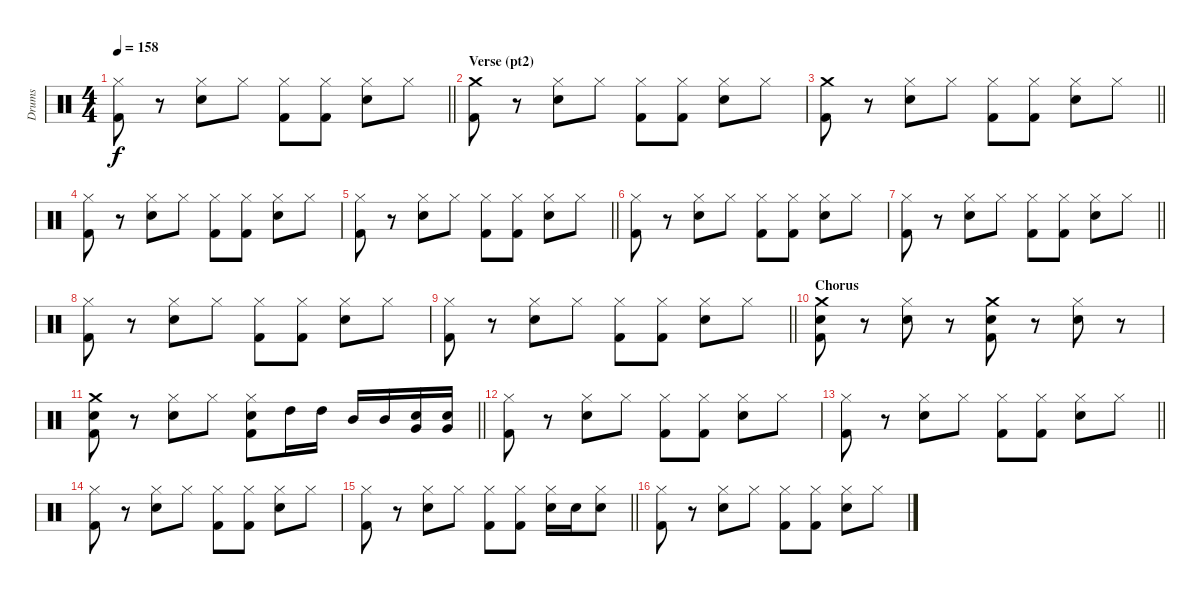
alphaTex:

\track ("Drums" "Drums") {instrument percussion}
\staff
\articulation defaults
\ts (4 4)
\tempo 158
\clef neutral
\barLineRight lightlight
\ks c
("Hi-Hat (closed)" "Kick (hit) 2").8{dy f} r.8 ("Hi-Hat (closed)" "Electric Snare (hit)").8 "Hi-Hat (closed)".8 ("Hi-Hat (closed)" "Kick (hit) 2").8 ("Hi-Hat (closed)" "Kick (hit) 2").8 ("Hi-Hat (closed)" "Electric Snare (hit)").8 "Hi-Hat (closed)".8 |
\section ("" "Verse (pt2)")
("Crash medium (hit)" "Kick (hit) 2").8 r.8 ("Hi-Hat (closed)" "Electric Snare (hit)").8 "Hi-Hat (closed)".8 ("Hi-Hat (closed)" "Kick (hit) 2").8 ("Hi-Hat (closed)" "Kick (hit) 2").8 ("Hi-Hat (closed)" "Electric Snare (hit)").8 "Hi-Hat (closed)".8 |
\barLineRight lightlight
("Crash medium (hit)" "Kick (hit) 2").8 r.8 ("Hi-Hat (closed)" "Electric Snare (hit)").8 "Hi-Hat (closed)".8 ("Hi-Hat (closed)" "Kick (hit) 2").8 ("Hi-Hat (closed)" "Kick (hit) 2").8 ("Hi-Hat (closed)" "Electric Snare (hit)").8 "Hi-Hat (closed)".8 |
("Hi-Hat (closed)" "Kick (hit) 2").8 r.8 ("Hi-Hat (closed)" "Electric Snare (hit)").8 "Hi-Hat (closed)".8 ("Hi-Hat (closed)" "Kick (hit) 2").8 ("Hi-Hat (closed)" "Kick (hit) 2").8 ("Hi-Hat (closed)" "Electric Snare (hit)").8 "Hi-Hat (closed)".8 |
\barLineRight lightlight
("Hi-Hat (closed)" "Kick (hit) 2").8 r.8 ("Hi-Hat (closed)" "Electric Snare (hit)").8 "Hi-Hat (closed)".8 ("Hi-Hat (closed)" "Kick (hit) 2").8 ("Hi-Hat (closed)" "Kick (hit) 2").8 ("Hi-Hat (closed)" "Electric Snare (hit)").8 "Hi-Hat (closed)".8 |
("Hi-Hat (closed)" "Kick (hit) 2").8 r.8 ("Hi-Hat (closed)" "Electric Snare (hit)").8 "Hi-Hat (closed)".8 ("Hi-Hat (closed)" "Kick (hit) 2").8 ("Hi-Hat (closed)" "Kick (hit) 2").8 ("Hi-Hat (closed)" "Electric Snare (hit)").8 "Hi-Hat (closed)".8 |
\barLineRight lightlight
("Hi-Hat (closed)" "Kick (hit) 2").8 r.8 ("Hi-Hat (closed)" "Electric Snare (hit)").8 "Hi-Hat (closed)".8 ("Hi-Hat (closed)" "Kick (hit) 2").8 ("Hi-Hat (closed)" "Kick (hit) 2").8 ("Hi-Hat (closed)" "Electric Snare (hit)").8 "Hi-Hat (closed)".8 |
("Hi-Hat (closed)" "Kick (hit) 2").8 r.8 ("Hi-Hat (closed)" "Electric Snare (hit)").8 "Hi-Hat (closed)".8 ("Hi-Hat (closed)" "Kick (hit) 2").8 ("Hi-Hat (closed)" "Kick (hit) 2").8 ("Hi-Hat (closed)" "Electric Snare (hit)").8 "Hi-Hat (closed)".8 |
\barLineRight lightlight
("Hi-Hat (closed)" "Kick (hit) 2").8 r.8 ("Hi-Hat (closed)" "Electric Snare (hit)").8 "Hi-Hat (closed)".8 ("Hi-Hat (closed)" "Kick (hit) 2").8 ("Hi-Hat (closed)" "Kick (hit) 2").8 ("Hi-Hat (closed)" "Electric Snare (hit)").8 "Hi-Hat (closed)".8 |
\section ("" "Chorus")
("Crash medium (hit)" "Electric Snare (hit)" "Kick (hit) 2").8 r.8 ("Hi-Hat (closed)" "Electric Snare (hit)").8 r.8 ("Crash medium (hit)" "Electric Snare (hit)" "Kick (hit) 2").8 r.8 ("Hi-Hat (closed)" "Electric Snare (hit)").8 r.8 |
\barLineRight lightlight
("Crash medium (hit)" "Electric Snare (hit)" "Kick (hit) 2").8 r.8 ("Hi-Hat (closed)" "Electric Snare (hit)").8 "Hi-Hat (closed)".8 ("Hi-Hat (closed)" "Electric Snare (hit)" "Kick (hit) 2").8 "High Tom (hit)".16 "High Tom (hit)".16 "Mid Tom (hit)".16 "Mid Tom (hit)".16 ("Electric Snare (hit)" "Very Low Tom (hit)").16 ("Electric Snare (hit)" "Very Low Tom (hit)").16 |
("Hi-Hat (closed)" "Kick (hit) 2").8 r.8 ("Hi-Hat (closed)" "Electric Snare (hit)").8 "Hi-Hat (closed)".8 ("Hi-Hat (closed)" "Kick (hit) 2").8 ("Hi-Hat (closed)" "Kick (hit) 2").8 ("Hi-Hat (closed)" "Electric Snare (hit)").8 "Hi-Hat (closed)".8 |
\barLineRight lightlight
("Hi-Hat (closed)" "Kick (hit) 2").8 r.8 ("Hi-Hat (closed)" "Electric Snare (hit)").8 "Hi-Hat (closed)".8 ("Hi-Hat (closed)" "Kick (hit) 2").8 ("Hi-Hat (closed)" "Kick (hit) 2").8 ("Hi-Hat (closed)" "Electric Snare (hit)").8 "Hi-Hat (closed)".8 |
("Hi-Hat (closed)" "Kick (hit) 2").8 r.8 ("Hi-Hat (closed)" "Electric Snare (hit)").8 "Hi-Hat (closed)".8 ("Hi-Hat (closed)" "Kick (hit) 2").8 ("Hi-Hat (closed)" "Kick (hit) 2").8 ("Hi-Hat (closed)" "Electric Snare (hit)").8 "Hi-Hat (closed)".8 |
\barLineRight lightlight
("Hi-Hat (closed)" "Kick (hit) 2").8 r.8 ("Hi-Hat (closed)" "Electric Snare (hit)").8 "Hi-Hat (closed)".8 ("Hi-Hat (closed)" "Kick (hit) 2").8 ("Hi-Hat (closed)" "Kick (hit) 2").8 ("Hi-Hat (closed)" "Electric Snare (hit)").16 "Electric Snare (hit)".16 ("Hi-Hat (closed)" "Electric Snare (hit)").8 |
("Hi-Hat (closed)" "Kick (hit) 2").8 r.8 ("Hi-Hat (closed)" "Electric Snare (hit)").8 "Hi-Hat (closed)".8 ("Hi-Hat (closed)" "Kick (hit) 2").8 ("Hi-Hat (closed)" "Kick (hit) 2").8 ("Hi-Hat (closed)" "Electric Snare (hit)").8 "Hi-Hat (closed)".8
